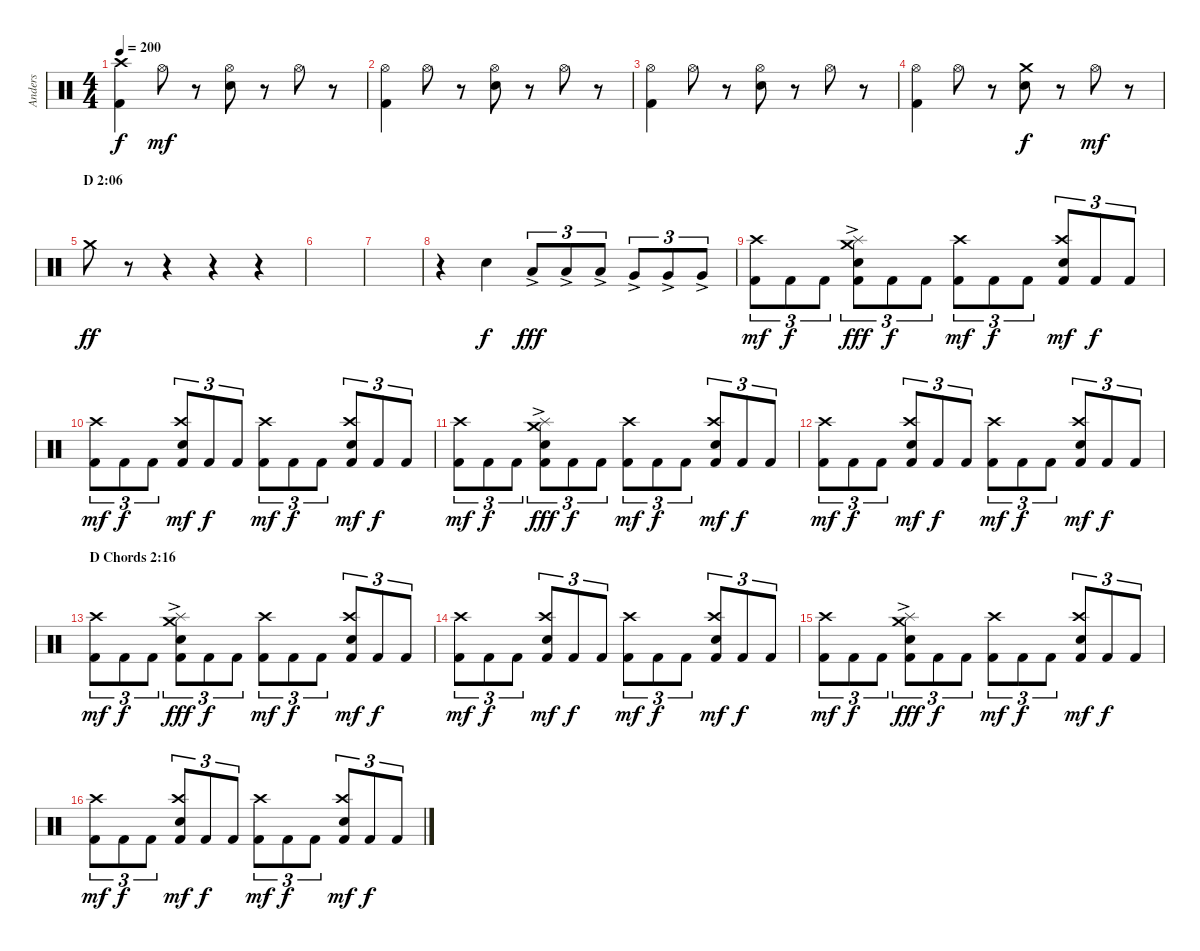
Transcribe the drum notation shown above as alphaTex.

\track ("Anders" "Anders") {instrument percussion}
\staff {score}
\articulation defaults
\ts (4 4)
\tempo 200
\clef neutral
\ks c
("Kick (hit) 2" "Crash high (hit)").4{dy f} "Hi-Hat (open)".8{dy mf} r.8 ("Electric Snare (hit)" "Hi-Hat (open)").8 r.8 "Hi-Hat (open)".8 r.8 |
("Kick (hit) 2" "Hi-Hat (open)").4 "Hi-Hat (open)".8 r.8 ("Electric Snare (hit)" "Hi-Hat (open)").8 r.8 "Hi-Hat (open)".8 r.8 |
("Kick (hit) 2" "Hi-Hat (open)").4 "Hi-Hat (open)".8 r.8 ("Electric Snare (hit)" "Hi-Hat (open)").8 r.8 "Hi-Hat (open)".8 r.8 |
("Kick (hit) 2" "Hi-Hat (open)").4 "Hi-Hat (open)".8 r.8 ("Electric Snare (hit)" "Crash medium (hit)").8{dy f} r.8 "Hi-Hat (open)".8{dy mf} r.8 |
\section ("" "D 2:06")
"Crash medium (hit)".8{dy ff} r.8{volume 0} r.4 r.4 r.4 |
|
|
r.4{volume 16} "Electric Snare (hit)".4{dy f} "Low Tom (hit)"{ac}.8{tu (3 2) dy fff} "Low Tom (hit)"{ac}.8{tu (3 2)} "Low Tom (hit)"{ac}.8{tu (3 2)} "Very Low Tom (hit)"{ac}.8{tu (3 2)} "Very Low Tom (hit)"{ac}.8{tu (3 2)} "Very Low Tom (hit)"{ac}.8{tu (3 2)} |
("Kick (hit) 2" "Crash high (hit)").8{tu (3 2) dy mf} "Kick (hit) 2".8{tu (3 2) dy f} "Kick (hit) 2".8{tu (3 2)} ("Kick (hit) 2" "Electric Snare (hit)" "Splash (hit)" "Crash medium (hit)"{ac}).8{tu (3 2) dy fff} "Kick (hit) 2".8{tu (3 2) dy f} "Kick (hit) 2".8{tu (3 2)} ("Kick (hit) 2" "Crash high (hit)").8{tu (3 2) dy mf} "Kick (hit) 2".8{tu (3 2) dy f} "Kick (hit) 2".8{tu (3 2)} ("Kick (hit) 2" "Electric Snare (hit)" "Crash high (hit)").8{tu (3 2) dy mf} "Kick (hit) 2".8{tu (3 2) dy f} "Kick (hit) 2".8{tu (3 2)} |
("Kick (hit) 2" "Crash high (hit)").8{tu (3 2) dy mf} "Kick (hit) 2".8{tu (3 2) dy f} "Kick (hit) 2".8{tu (3 2)} ("Kick (hit) 2" "Electric Snare (hit)" "Crash high (hit)").8{tu (3 2) dy mf} "Kick (hit) 2".8{tu (3 2) dy f} "Kick (hit) 2".8{tu (3 2)} ("Kick (hit) 2" "Crash high (hit)").8{tu (3 2) dy mf} "Kick (hit) 2".8{tu (3 2) dy f} "Kick (hit) 2".8{tu (3 2)} ("Kick (hit) 2" "Electric Snare (hit)" "Crash high (hit)").8{tu (3 2) dy mf} "Kick (hit) 2".8{tu (3 2) dy f} "Kick (hit) 2".8{tu (3 2)} |
("Kick (hit) 2" "Crash high (hit)").8{tu (3 2) dy mf} "Kick (hit) 2".8{tu (3 2) dy f} "Kick (hit) 2".8{tu (3 2)} ("Kick (hit) 2" "Electric Snare (hit)" "Splash (hit)" "Crash medium (hit)"{ac}).8{tu (3 2) dy fff} "Kick (hit) 2".8{tu (3 2) dy f} "Kick (hit) 2".8{tu (3 2)} ("Kick (hit) 2" "Crash high (hit)").8{tu (3 2) dy mf} "Kick (hit) 2".8{tu (3 2) dy f} "Kick (hit) 2".8{tu (3 2)} ("Kick (hit) 2" "Electric Snare (hit)" "Crash high (hit)").8{tu (3 2) dy mf} "Kick (hit) 2".8{tu (3 2) dy f} "Kick (hit) 2".8{tu (3 2)} |
("Kick (hit) 2" "Crash high (hit)").8{tu (3 2) dy mf} "Kick (hit) 2".8{tu (3 2) dy f} "Kick (hit) 2".8{tu (3 2)} ("Kick (hit) 2" "Electric Snare (hit)" "Crash high (hit)").8{tu (3 2) dy mf} "Kick (hit) 2".8{tu (3 2) dy f} "Kick (hit) 2".8{tu (3 2)} ("Kick (hit) 2" "Crash high (hit)").8{tu (3 2) dy mf} "Kick (hit) 2".8{tu (3 2) dy f} "Kick (hit) 2".8{tu (3 2)} ("Kick (hit) 2" "Electric Snare (hit)" "Crash high (hit)").8{tu (3 2) dy mf} "Kick (hit) 2".8{tu (3 2) dy f} "Kick (hit) 2".8{tu (3 2)} |
\section ("" "D Chords 2:16")
("Kick (hit) 2" "Crash high (hit)").8{tu (3 2) dy mf} "Kick (hit) 2".8{tu (3 2) dy f} "Kick (hit) 2".8{tu (3 2)} ("Kick (hit) 2" "Electric Snare (hit)" "Splash (hit)" "Crash medium (hit)"{ac}).8{tu (3 2) dy fff} "Kick (hit) 2".8{tu (3 2) dy f} "Kick (hit) 2".8{tu (3 2)} ("Kick (hit) 2" "Crash high (hit)").8{tu (3 2) dy mf} "Kick (hit) 2".8{tu (3 2) dy f} "Kick (hit) 2".8{tu (3 2)} ("Kick (hit) 2" "Electric Snare (hit)" "Crash high (hit)").8{tu (3 2) dy mf} "Kick (hit) 2".8{tu (3 2) dy f} "Kick (hit) 2".8{tu (3 2)} |
("Kick (hit) 2" "Crash high (hit)").8{tu (3 2) dy mf} "Kick (hit) 2".8{tu (3 2) dy f} "Kick (hit) 2".8{tu (3 2)} ("Kick (hit) 2" "Electric Snare (hit)" "Crash high (hit)").8{tu (3 2) dy mf} "Kick (hit) 2".8{tu (3 2) dy f} "Kick (hit) 2".8{tu (3 2)} ("Kick (hit) 2" "Crash high (hit)").8{tu (3 2) dy mf} "Kick (hit) 2".8{tu (3 2) dy f} "Kick (hit) 2".8{tu (3 2)} ("Kick (hit) 2" "Electric Snare (hit)" "Crash high (hit)").8{tu (3 2) dy mf} "Kick (hit) 2".8{tu (3 2) dy f} "Kick (hit) 2".8{tu (3 2)} |
("Kick (hit) 2" "Crash high (hit)").8{tu (3 2) dy mf} "Kick (hit) 2".8{tu (3 2) dy f} "Kick (hit) 2".8{tu (3 2)} ("Kick (hit) 2" "Electric Snare (hit)" "Splash (hit)" "Crash medium (hit)"{ac}).8{tu (3 2) dy fff} "Kick (hit) 2".8{tu (3 2) dy f} "Kick (hit) 2".8{tu (3 2)} ("Kick (hit) 2" "Crash high (hit)").8{tu (3 2) dy mf} "Kick (hit) 2".8{tu (3 2) dy f} "Kick (hit) 2".8{tu (3 2)} ("Kick (hit) 2" "Electric Snare (hit)" "Crash high (hit)").8{tu (3 2) dy mf} "Kick (hit) 2".8{tu (3 2) dy f} "Kick (hit) 2".8{tu (3 2)} |
("Kick (hit) 2" "Crash high (hit)").8{tu (3 2) dy mf} "Kick (hit) 2".8{tu (3 2) dy f} "Kick (hit) 2".8{tu (3 2)} ("Kick (hit) 2" "Electric Snare (hit)" "Crash high (hit)").8{tu (3 2) dy mf} "Kick (hit) 2".8{tu (3 2) dy f} "Kick (hit) 2".8{tu (3 2)} ("Kick (hit) 2" "Crash high (hit)").8{tu (3 2) dy mf} "Kick (hit) 2".8{tu (3 2) dy f} "Kick (hit) 2".8{tu (3 2)} ("Kick (hit) 2" "Electric Snare (hit)" "Crash high (hit)").8{tu (3 2) dy mf} "Kick (hit) 2".8{tu (3 2) dy f} "Kick (hit) 2".8{tu (3 2)}
